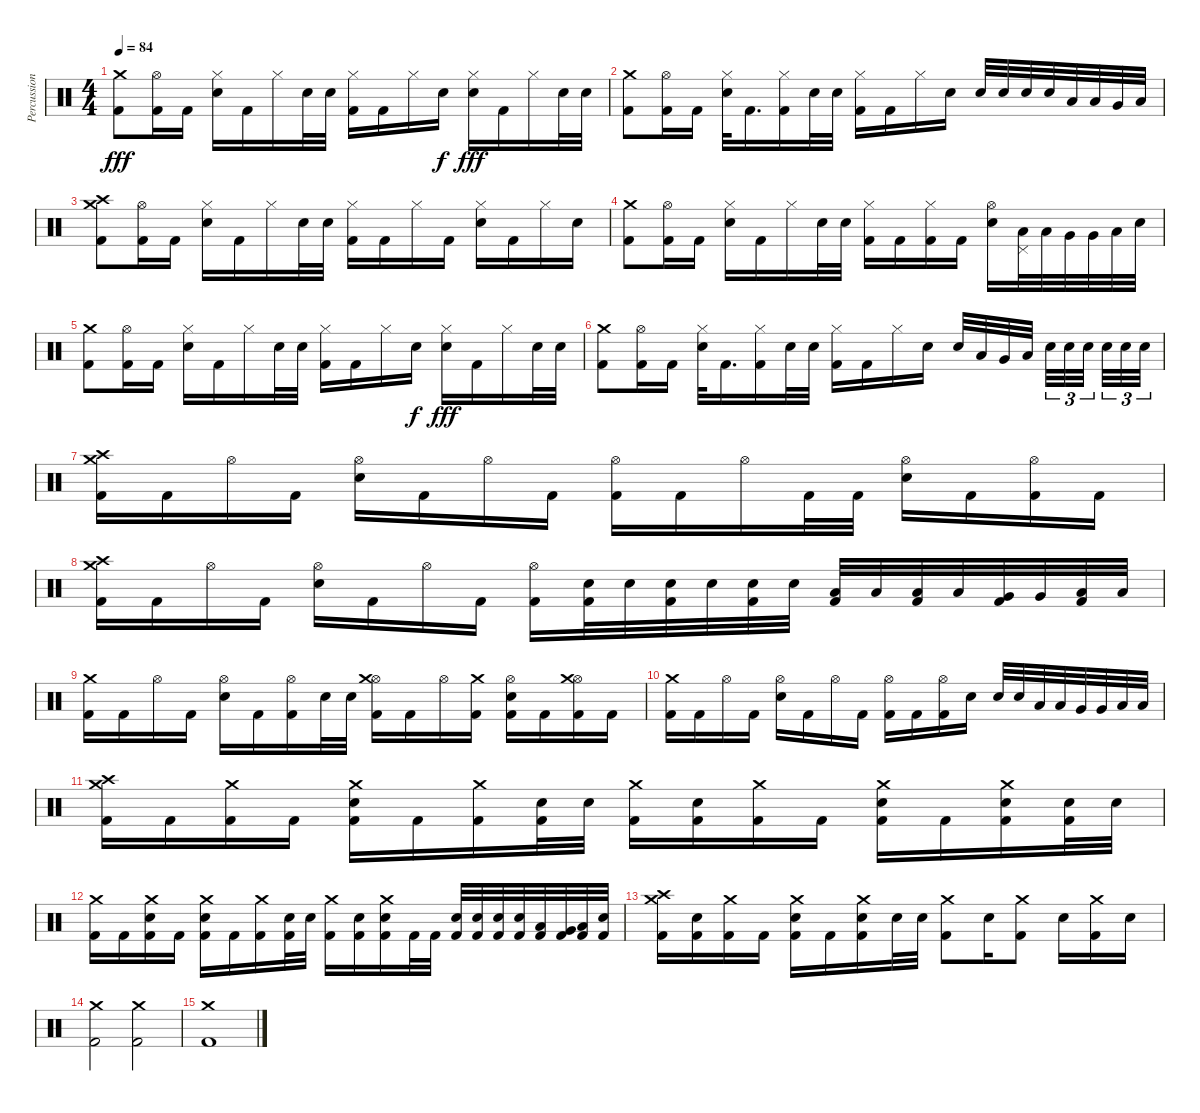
\track ("Percussion" "Percussion") {instrument percussion}
\staff {score}
\articulation defaults
\ts (4 4)
\tempo 84
\clef neutral
\ks c
("Crash medium (hit)" "Kick (hit) 2").8{dy fff} ("Hi-Hat (open)" "Kick (hit) 2").16 "Kick (hit) 2".16 ("Hi-Hat (closed)" "Electric Snare (hit)").16 "Kick (hit) 2".16 "Hi-Hat (closed)".16 "Electric Snare (hit)".32 "Electric Snare (hit)".32 ("Hi-Hat (closed)" "Kick (hit) 2").16 "Kick (hit) 2".16 "Hi-Hat (closed)".16 "Electric Snare (hit)".16{dy f} ("Hi-Hat (closed)" "Electric Snare (hit)").16{dy fff} "Kick (hit) 2".16 "Hi-Hat (closed)".16 "Electric Snare (hit)".32 "Electric Snare (hit)".32 |
("Crash medium (hit)" "Kick (hit) 2").8 ("Hi-Hat (open)" "Kick (hit) 2").16 "Kick (hit) 2".16 ("Hi-Hat (closed)" "Electric Snare (hit)").32 "Kick (hit) 2".16{d} ("Hi-Hat (closed)" "Kick (hit) 2").16 "Electric Snare (hit)".32 "Electric Snare (hit)".32 ("Hi-Hat (closed)" "Kick (hit) 2").16 "Kick (hit) 2".16 "Hi-Hat (closed)".16 "Electric Snare (hit)".16 "Electric Snare (hit)".32 "Electric Snare (hit)".32 "Electric Snare (hit)".32 "Electric Snare (hit)".32 "Low Tom (hit)".32 "Low Tom (hit)".32 "Very Low Tom (hit)".32 "Low Floor Tom (hit)".32 |
("Crash high (hit)" "Crash medium (hit)" "Kick (hit) 2").8 ("Hi-Hat (open)" "Kick (hit) 2").16 "Kick (hit) 2".16 ("Hi-Hat (closed)" "Electric Snare (hit)").16 "Kick (hit) 2".16 "Hi-Hat (closed)".16 "Electric Snare (hit)".32 "Electric Snare (hit)".32 ("Hi-Hat (closed)" "Kick (hit) 2").16 "Kick (hit) 2".16 "Hi-Hat (closed)".16 "Kick (hit) 2".16 ("Hi-Hat (closed)" "Electric Snare (hit)").16 "Kick (hit) 2".16 "Hi-Hat (closed)".16 "Electric Snare (hit)".16 |
("Crash medium (hit)" "Kick (hit) 2").8 ("Hi-Hat (open)" "Kick (hit) 2").16 "Kick (hit) 2".16 ("Hi-Hat (closed)" "Electric Snare (hit)").16 "Kick (hit) 2".16 "Hi-Hat (closed)".16 "Electric Snare (hit)".32 "Electric Snare (hit)".32 ("Hi-Hat (closed)" "Kick (hit) 2").16 "Kick (hit) 2".16 ("Hi-Hat (closed)" "Kick (hit) 2").16 "Kick (hit) 2".16 ("Hi-Hat (open)" "Electric Snare (hit)").16 ("Pedal Hi-Hat (hit)" "Low Tom (hit)").32 "Low Tom (hit)".32 "Very Low Tom (hit)".32 "Very Low Tom (hit)".32 "Low Floor Tom (hit)".32 "Electric Snare (hit)".32 |
("Crash medium (hit)" "Kick (hit) 2").8 ("Hi-Hat (open)" "Kick (hit) 2").16 "Kick (hit) 2".16 ("Hi-Hat (closed)" "Electric Snare (hit)").16 "Kick (hit) 2".16 "Hi-Hat (closed)".16 "Electric Snare (hit)".32 "Electric Snare (hit)".32 ("Hi-Hat (closed)" "Kick (hit) 2").16 "Kick (hit) 2".16 "Hi-Hat (closed)".16 "Electric Snare (hit)".16{dy f} ("Hi-Hat (closed)" "Electric Snare (hit)").16{dy fff} "Kick (hit) 2".16 "Hi-Hat (closed)".16 "Electric Snare (hit)".32 "Electric Snare (hit)".32 |
("Crash medium (hit)" "Kick (hit) 2").8 ("Hi-Hat (open)" "Kick (hit) 2").16 "Kick (hit) 2".16 ("Hi-Hat (closed)" "Electric Snare (hit)").32 "Kick (hit) 2".16{d} ("Hi-Hat (closed)" "Kick (hit) 2").16 "Electric Snare (hit)".32 "Electric Snare (hit)".32 ("Hi-Hat (closed)" "Kick (hit) 2").16 "Kick (hit) 2".16 "Hi-Hat (closed)".16 "Electric Snare (hit)".16 "Electric Snare (hit)".32 "Low Tom (hit)".32 "Very Low Tom (hit)".32 "Low Floor Tom (hit)".32{beam splitsecondary} "Electric Snare (hit)".32{tu (3 2)} "Electric Snare (hit)".32{tu (3 2)} "Electric Snare (hit)".32{tu (3 2) beam splitsecondary} "Electric Snare (hit)".32{tu (3 2)} "Electric Snare (hit)".32{tu (3 2)} "Electric Snare (hit)".32{tu (3 2)} |
("Crash high (hit)" "Crash medium (hit)" "Kick (hit) 2").16 "Kick (hit) 2".16 "Hi-Hat (open)".16 "Kick (hit) 2".16 ("Hi-Hat (open)" "Electric Snare (hit)").16 "Kick (hit) 2".16 "Hi-Hat (open)".16 "Kick (hit) 2".16 ("Hi-Hat (open)" "Kick (hit) 2").16 "Kick (hit) 2".16 "Hi-Hat (open)".16 "Kick (hit) 2".32 "Kick (hit) 2".32 ("Hi-Hat (open)" "Electric Snare (hit)").16 "Kick (hit) 2".16 ("Hi-Hat (open)" "Kick (hit) 2").16 "Kick (hit) 2".16 |
("Crash high (hit)" "Crash medium (hit)" "Kick (hit) 2").16 "Kick (hit) 2".16 "Hi-Hat (open)".16 "Kick (hit) 2".16 ("Hi-Hat (open)" "Electric Snare (hit)").16 "Kick (hit) 2".16 "Hi-Hat (open)".16 "Kick (hit) 2".16 ("Hi-Hat (open)" "Kick (hit) 2").16 ("Electric Snare (hit)" "Kick (hit) 2").32 "Electric Snare (hit)".32 ("Electric Snare (hit)" "Kick (hit) 2").32 "Electric Snare (hit)".32 ("Electric Snare (hit)" "Kick (hit) 2").32 "Electric Snare (hit)".32 ("Low Tom (hit)" "Kick (hit) 2").32 "Low Tom (hit)".32 ("Low Tom (hit)" "Kick (hit) 2").32 "Low Tom (hit)".32 ("Very Low Tom (hit)" "Kick (hit) 2").32 "Very Low Tom (hit)".32 ("Low Floor Tom (hit)" "Kick (hit) 2").32 "Low Floor Tom (hit)".32 |
("Crash medium (hit)" "Kick (hit) 2").16 "Kick (hit) 2".16 "Hi-Hat (open)".16 "Kick (hit) 2".16 ("Hi-Hat (open)" "Electric Snare (hit)").16 "Kick (hit) 2".16 ("Hi-Hat (open)" "Kick (hit) 2").16 "Electric Snare (hit)".32 "Electric Snare (hit)".32 ("Hi-Hat (open)" "Crash medium (hit)" "Kick (hit) 2").16 "Kick (hit) 2".16 "Hi-Hat (open)".16 ("Crash medium (hit)" "Kick (hit) 2").16 ("Hi-Hat (open)" "Electric Snare (hit)" "Kick (hit) 2").16 "Kick (hit) 2".16 ("Hi-Hat (open)" "Crash medium (hit)" "Kick (hit) 2").16 "Kick (hit) 2".16 |
("Crash medium (hit)" "Kick (hit) 2").16 "Kick (hit) 2".16 "Hi-Hat (open)".16 "Kick (hit) 2".16 ("Hi-Hat (open)" "Electric Snare (hit)").16 "Kick (hit) 2".16 "Hi-Hat (open)".16 "Kick (hit) 2".16 ("Hi-Hat (open)" "Kick (hit) 2").16 "Kick (hit) 2".16 ("Hi-Hat (open)" "Kick (hit) 2").16 "Electric Snare (hit)".16 "Electric Snare (hit)".32 "Electric Snare (hit)".32 "Low Tom (hit)".32 "Low Tom (hit)".32 "Very Low Tom (hit)".32 "Very Low Tom (hit)".32 "Low Floor Tom (hit)".32 "Low Floor Tom (hit)".32 |
("Crash high (hit)" "Crash medium (hit)" "Kick (hit) 2").16 "Kick (hit) 2".16 ("Crash medium (hit)" "Kick (hit) 2").16 "Kick (hit) 2".16 ("Crash medium (hit)" "Electric Snare (hit)" "Kick (hit) 2").16 "Kick (hit) 2".16 ("Crash medium (hit)" "Kick (hit) 2").16 ("Electric Snare (hit)" "Kick (hit) 2").32 "Electric Snare (hit)".32 ("Crash medium (hit)" "Kick (hit) 2").16 ("Electric Snare (hit)" "Kick (hit) 2").16 ("Crash medium (hit)" "Kick (hit) 2").16 "Kick (hit) 2".16 ("Crash medium (hit)" "Electric Snare (hit)" "Kick (hit) 2").16 "Kick (hit) 2".16 ("Crash medium (hit)" "Electric Snare (hit)" "Kick (hit) 2").16 ("Electric Snare (hit)" "Kick (hit) 2").32 "Electric Snare (hit)".32 |
("Crash medium (hit)" "Kick (hit) 2").16 "Kick (hit) 2".16 ("Crash medium (hit)" "Electric Snare (hit)" "Kick (hit) 2").16 "Kick (hit) 2".16 ("Crash medium (hit)" "Electric Snare (hit)" "Kick (hit) 2").16 "Kick (hit) 2".16 ("Crash medium (hit)" "Kick (hit) 2").16 ("Electric Snare (hit)" "Kick (hit) 2").32 "Electric Snare (hit)".32 ("Crash medium (hit)" "Kick (hit) 2").16 ("Electric Snare (hit)" "Kick (hit) 2").16 ("Crash medium (hit)" "Electric Snare (hit)" "Kick (hit) 2").16 "Kick (hit) 2".32 "Kick (hit) 2".32 ("Electric Snare (hit)" "Kick (hit) 2").32 ("Electric Snare (hit)" "Kick (hit) 2").32 ("Electric Snare (hit)" "Kick (hit) 2").32 ("Electric Snare (hit)" "Kick (hit) 2").32 ("Low Tom (hit)" "Kick (hit) 2").32 ("Very Low Tom (hit)" "Kick (hit) 2").32 ("Low Floor Tom (hit)" "Kick (hit) 2").32 ("Electric Snare (hit)" "Kick (hit) 2").32 |
("Crash high (hit)" "Crash medium (hit)" "Kick (hit) 2").16 ("Electric Snare (hit)" "Kick (hit) 2").16 ("Crash medium (hit)" "Kick (hit) 2").16 "Kick (hit) 2".16 ("Crash medium (hit)" "Electric Snare (hit)" "Kick (hit) 2").16 "Kick (hit) 2".16 ("Crash medium (hit)" "Electric Snare (hit)" "Kick (hit) 2").16 "Electric Snare (hit)".32 "Electric Snare (hit)".32 ("Crash medium (hit)" "Kick (hit) 2").8 "Electric Snare (hit)".16 ("Crash medium (hit)" "Kick (hit) 2").8 "Electric Snare (hit)".16 ("Crash medium (hit)" "Kick (hit) 2").16 "Electric Snare (hit)".16 |
("Crash medium (hit)" "Kick (hit) 2").2 ("Crash medium (hit)" "Kick (hit) 2").2 |
("Crash medium (hit)" "Kick (hit) 2").1
